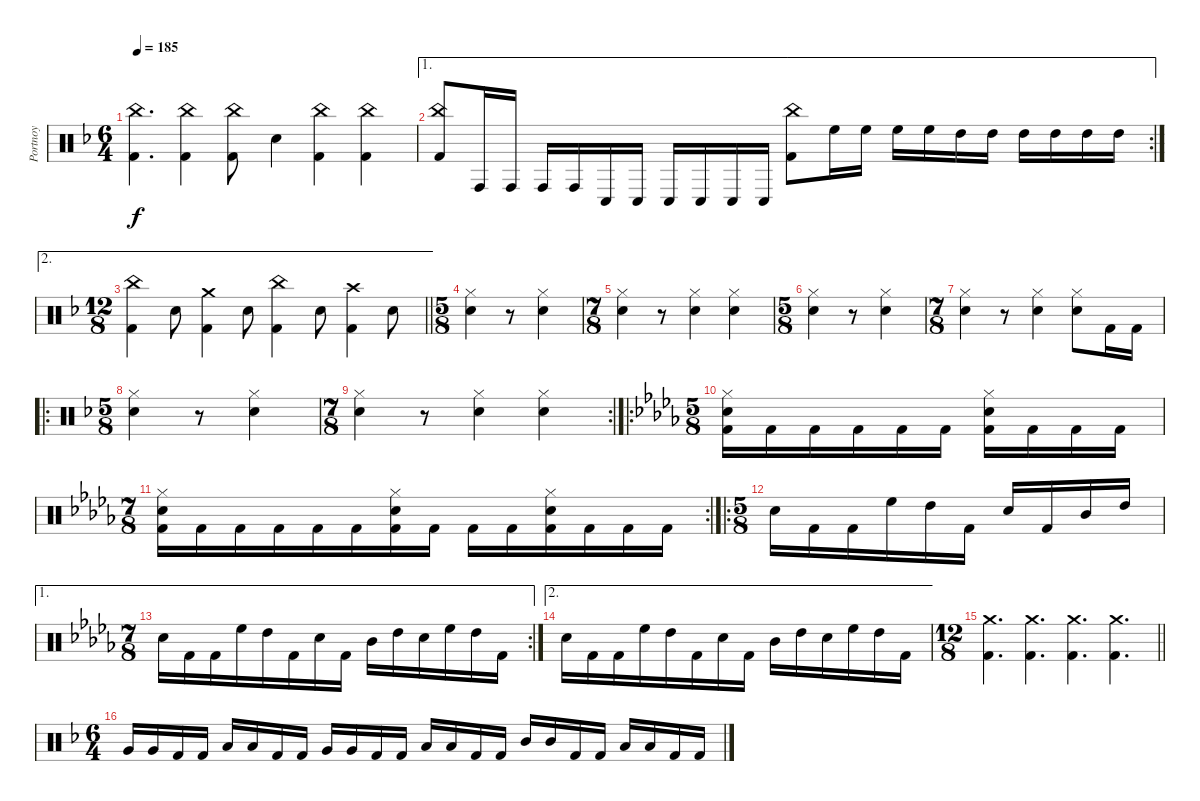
\track ("Portnoy" "Portnoy") {instrument percussion}
\staff {score}
\articulation defaults
\ts (6 4)
\tempo 185
\clef neutral
\ks f
("China (hit)" "Kick (hit) 2").4{d dy f} ("China (hit)" "Kick (hit) 2").4 ("China (hit)" "Kick (hit) 2").8 "Electric Snare (hit)".4 ("China (hit)" "Kick (hit) 2").4 ("China (hit)" "Kick (hit) 2").4 |
\ae 1
\rc 2
("China (hit)" "Kick (hit) 2").8 "Conga high (hit)".16 "Conga high (hit)".16 "Conga high (hit)".16 "Conga high (hit)".16 "Conga low (hit)".16 "Conga low (hit)".16 "Conga low (hit)".16 "Conga low (hit)".16 "Conga low (hit)".16 "Conga low (hit)".16 ("China (hit)" "Kick (hit) 2").8 "High Floor Tom (hit)".16 "High Floor Tom (hit)".16 "High Floor Tom (hit)".16 "High Floor Tom (hit)".16 "High Tom (hit)".16 "High Tom (hit)".16 "High Tom (hit)".16 "High Tom (hit)".16 "High Tom (hit)".16 "High Tom (hit)".16 |
\ae 2
\ts (12 8)
\barLineRight lightlight
("China (hit)" "Kick (hit) 2").4 "Electric Snare (hit)".8 ("Crash medium (hit)" "Kick (hit) 2").4 "Electric Snare (hit)".8 ("China (hit)" "Kick (hit) 2").4 "Electric Snare (hit)".8 ("Crash high (hit)" "Kick (hit) 2").4 "Electric Snare (hit)".8 |
\ts (5 8)
("Hi-Hat (closed)" "Electric Snare (hit)").4 r.8 ("Hi-Hat (closed)" "Electric Snare (hit)").4 |
\ts (7 8)
("Hi-Hat (closed)" "Electric Snare (hit)").4 r.8 ("Hi-Hat (closed)" "Electric Snare (hit)").4 ("Hi-Hat (closed)" "Electric Snare (hit)").4 |
\ts (5 8)
("Hi-Hat (closed)" "Electric Snare (hit)").4 r.8 ("Hi-Hat (closed)" "Electric Snare (hit)").4 |
\ts (7 8)
("Hi-Hat (closed)" "Electric Snare (hit)").4 r.8 ("Hi-Hat (closed)" "Electric Snare (hit)").4 ("Hi-Hat (closed)" "Electric Snare (hit)").8 "Kick (hit) 2".16 "Kick (hit) 2".16 |
\ro
\ts (5 8)
("Hi-Hat (closed)" "Electric Snare (hit)").4 r.8 ("Hi-Hat (closed)" "Electric Snare (hit)").4 |
\rc 2
\ts (7 8)
("Hi-Hat (closed)" "Electric Snare (hit)").4 r.8 ("Hi-Hat (closed)" "Electric Snare (hit)").4 ("Hi-Hat (closed)" "Electric Snare (hit)").4 |
\ro
\ts (5 8)
\ks db
("Hi-Hat (closed)" "Electric Snare (hit)" "Kick (hit) 2").16 "Kick (hit) 2".16 "Kick (hit) 2".16 "Kick (hit) 2".16 "Kick (hit) 2".16 "Kick (hit) 2".16 ("Hi-Hat (closed)" "Electric Snare (hit)" "Kick (hit) 2").16 "Kick (hit) 2".16 "Kick (hit) 2".16 "Kick (hit) 2".16 |
\rc 2
\ts (7 8)
("Hi-Hat (closed)" "Electric Snare (hit)" "Kick (hit) 2").16 "Kick (hit) 2".16 "Kick (hit) 2".16 "Kick (hit) 2".16 "Kick (hit) 2".16 "Kick (hit) 2".16 ("Hi-Hat (closed)" "Electric Snare (hit)" "Kick (hit) 2").16 "Kick (hit) 2".16 "Kick (hit) 2".16 "Kick (hit) 2".16 ("Hi-Hat (closed)" "Electric Snare (hit)" "Kick (hit) 2").16 "Kick (hit) 2".16 "Kick (hit) 2".16 "Kick (hit) 2".16 |
\ro
\ts (5 8)
"Electric Snare (hit)".16 "Kick (hit) 2".16 "Kick (hit) 2".16 "High Floor Tom (hit)".16 "High Tom (hit)".16 "Kick (hit) 2".16 "Electric Snare (hit)".16 "Kick (hit) 2".16 "Mid Tom (hit)".16 "High Tom (hit)".16 |
\ae 1
\rc 2
\ts (7 8)
"Electric Snare (hit)".16 "Kick (hit) 2".16 "Kick (hit) 2".16 "High Floor Tom (hit)".16 "High Tom (hit)".16 "Kick (hit) 2".16 "Electric Snare (hit)".16 "Kick (hit) 2".16 "Mid Tom (hit)".16 "High Tom (hit)".16 "Electric Snare (hit)".16 "High Floor Tom (hit)".16 "High Tom (hit)".16 "Kick (hit) 2".16 |
\ae 2 "Electric Snare (hit)".16 "Kick (hit) 2".16 "Kick (hit) 2".16 "High Floor Tom (hit)".16 "High Tom (hit)".16 "Kick (hit) 2".16 "Electric Snare (hit)".16 "Kick (hit) 2".16 "Mid Tom (hit)".16 "High Tom (hit)".16 "Electric Snare (hit)".16 "High Floor Tom (hit)".16 "High Tom (hit)".16 "Kick (hit) 2".16
|
\ts (12 8)
\barLineRight lightlight
("Crash medium (hit)" "Kick (hit) 2").4{d} ("Crash medium (hit)" "Kick (hit) 2").4{d} ("Crash medium (hit)" "Kick (hit) 2").4{d} ("Crash medium (hit)" "Kick (hit) 2").4{d} |
\ts (6 4)
\ks f "Very Low Tom (hit)".16 "Very Low Tom (hit)".16 "Kick (hit) 2".16 "Kick (hit) 2".16 "Low Tom (hit)".16 "Low Tom (hit)".16 "Kick (hit) 2".16 "Kick (hit) 2".16 "Very Low Tom (hit)".16 "Very Low Tom (hit)".16 "Kick (hit) 2".16 "Kick (hit) 2".16 "Low Tom (hit)".16 "Low Tom (hit)".16 "Kick (hit) 2".16 "Kick (hit) 2".16 "Mid Tom (hit)".16 "Mid Tom (hit)".16 "Kick (hit) 2".16 "Kick (hit) 2".16 "Low Tom (hit)".16 "Low Tom (hit)".16 "Kick (hit) 2".16 "Kick (hit) 2".16
